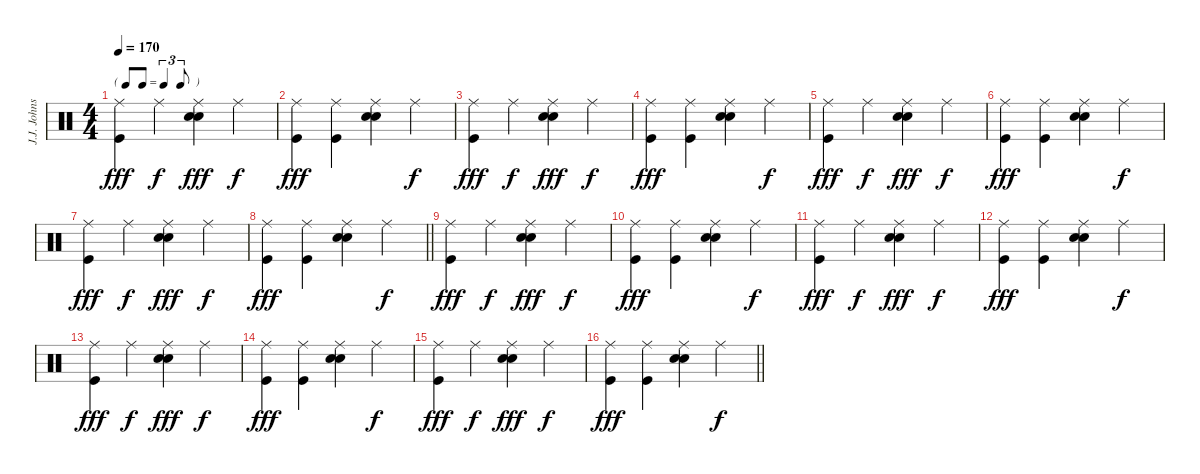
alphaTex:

\track ("J.J. Johnson" "J.J. Johns") {instrument percussion}
\staff {score}
\articulation defaults
\ts (4 4)
\tf triplet8th
\tempo 170
\clef neutral
\ks c
("Ride (middle)" "Kick (hit)").4{dy fff} "Ride (middle)".4{dy f} ("Ride (middle)" "Electric Snare (hit)" "Snare (hit) 2").4{dy fff} "Ride (middle)".4{dy f} |
("Ride (middle)" "Kick (hit)").4{dy fff} ("Ride (middle)" "Kick (hit)").4 ("Ride (middle)" "Snare (hit) 2" "Electric Snare (hit)").4 "Ride (middle)".4{dy f} |
("Ride (middle)" "Kick (hit)").4{dy fff} "Ride (middle)".4{dy f} ("Ride (middle)" "Electric Snare (hit)" "Snare (hit) 2").4{dy fff} "Ride (middle)".4{dy f} |
("Ride (middle)" "Kick (hit)").4{dy fff} ("Ride (middle)" "Kick (hit)").4 ("Ride (middle)" "Snare (hit) 2" "Electric Snare (hit)").4 "Ride (middle)".4{dy f} |
("Ride (middle)" "Kick (hit)").4{dy fff} "Ride (middle)".4{dy f} ("Ride (middle)" "Electric Snare (hit)" "Snare (hit) 2").4{dy fff} "Ride (middle)".4{dy f} |
("Ride (middle)" "Kick (hit)").4{dy fff} ("Ride (middle)" "Kick (hit)").4 ("Ride (middle)" "Snare (hit) 2" "Electric Snare (hit)").4 "Ride (middle)".4{dy f} |
("Ride (middle)" "Kick (hit)").4{dy fff} "Ride (middle)".4{dy f} ("Ride (middle)" "Electric Snare (hit)" "Snare (hit) 2").4{dy fff} "Ride (middle)".4{dy f} |
\barLineRight lightlight
("Ride (middle)" "Kick (hit)").4{dy fff} ("Ride (middle)" "Kick (hit)").4 ("Ride (middle)" "Snare (hit) 2" "Electric Snare (hit)").4 "Ride (middle)".4{dy f} |
("Ride (middle)" "Kick (hit)").4{dy fff} "Ride (middle)".4{dy f} ("Ride (middle)" "Electric Snare (hit)" "Snare (hit) 2").4{dy fff} "Ride (middle)".4{dy f} |
("Ride (middle)" "Kick (hit)").4{dy fff} ("Ride (middle)" "Kick (hit)").4 ("Ride (middle)" "Snare (hit) 2" "Electric Snare (hit)").4 "Ride (middle)".4{dy f} |
("Ride (middle)" "Kick (hit)").4{dy fff} "Ride (middle)".4{dy f} ("Ride (middle)" "Electric Snare (hit)" "Snare (hit) 2").4{dy fff} "Ride (middle)".4{dy f} |
("Ride (middle)" "Kick (hit)").4{dy fff} ("Ride (middle)" "Kick (hit)").4 ("Ride (middle)" "Snare (hit) 2" "Electric Snare (hit)").4 "Ride (middle)".4{dy f} |
("Ride (middle)" "Kick (hit)").4{dy fff} "Ride (middle)".4{dy f} ("Ride (middle)" "Electric Snare (hit)" "Snare (hit) 2").4{dy fff} "Ride (middle)".4{dy f} |
("Ride (middle)" "Kick (hit)").4{dy fff} ("Ride (middle)" "Kick (hit)").4 ("Ride (middle)" "Snare (hit) 2" "Electric Snare (hit)").4 "Ride (middle)".4{dy f} |
("Ride (middle)" "Kick (hit)").4{dy fff} "Ride (middle)".4{dy f} ("Ride (middle)" "Electric Snare (hit)" "Snare (hit) 2").4{dy fff} "Ride (middle)".4{dy f} |
\barLineRight lightlight
("Ride (middle)" "Kick (hit)").4{dy fff} ("Ride (middle)" "Kick (hit)").4 ("Ride (middle)" "Snare (hit) 2" "Electric Snare (hit)").4 "Ride (middle)".4{dy f}
